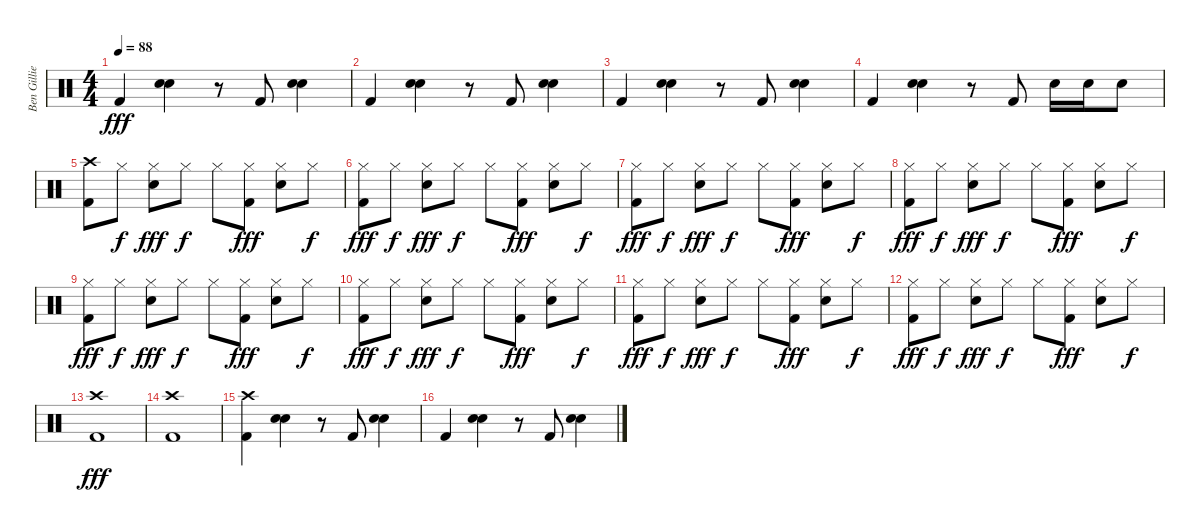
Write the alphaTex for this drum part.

\track ("Ben Gillies (Drums)" "Ben Gillie") {instrument percussion}
\staff {score}
\articulation defaults
\ts (4 4)
\tempo 88
\clef neutral
\ks c "Kick (hit) 2".4{dy fff}
("Electric Snare (hit)" "Electric Snare (hit)").4 r.8 "Kick (hit) 2".8 ("Electric Snare (hit)" "Electric Snare (hit)").4 |
"Kick (hit) 2".4 ("Electric Snare (hit)" "Electric Snare (hit)").4 r.8 "Kick (hit) 2".8 ("Electric Snare (hit)" "Electric Snare (hit)").4 |
"Kick (hit) 2".4 ("Electric Snare (hit)" "Electric Snare (hit)").4 r.8 "Kick (hit) 2".8 ("Electric Snare (hit)" "Electric Snare (hit)").4 |
"Kick (hit) 2".4 ("Electric Snare (hit)" "Electric Snare (hit)").4 r.8 "Kick (hit) 2".8 "Electric Snare (hit)".16 "Electric Snare (hit)".16 "Electric Snare (hit)".8 |
("Crash high (hit)" "Kick (hit) 2").8 "Hi-Hat (closed)".8{dy f} ("Hi-Hat (closed)" "Electric Snare (hit)").8{dy fff} "Hi-Hat (closed)".8{dy f} "Hi-Hat (closed)".8 ("Hi-Hat (closed)" "Kick (hit) 2").8{dy fff} ("Hi-Hat (closed)" "Electric Snare (hit)").8 "Hi-Hat (closed)".8{dy f} |
("Hi-Hat (closed)" "Kick (hit) 2").8{dy fff} "Hi-Hat (closed)".8{dy f} ("Hi-Hat (closed)" "Electric Snare (hit)").8{dy fff} "Hi-Hat (closed)".8{dy f} "Hi-Hat (closed)".8 ("Hi-Hat (closed)" "Kick (hit) 2").8{dy fff} ("Hi-Hat (closed)" "Electric Snare (hit)").8 "Hi-Hat (closed)".8{dy f} |
("Hi-Hat (closed)" "Kick (hit) 2").8{dy fff} "Hi-Hat (closed)".8{dy f} ("Hi-Hat (closed)" "Electric Snare (hit)").8{dy fff} "Hi-Hat (closed)".8{dy f} "Hi-Hat (closed)".8 ("Hi-Hat (closed)" "Kick (hit) 2").8{dy fff} ("Hi-Hat (closed)" "Electric Snare (hit)").8 "Hi-Hat (closed)".8{dy f} |
("Hi-Hat (closed)" "Kick (hit) 2").8{dy fff} "Hi-Hat (closed)".8{dy f} ("Hi-Hat (closed)" "Electric Snare (hit)").8{dy fff} "Hi-Hat (closed)".8{dy f} "Hi-Hat (closed)".8 ("Hi-Hat (closed)" "Kick (hit) 2").8{dy fff} ("Hi-Hat (closed)" "Electric Snare (hit)").8 "Hi-Hat (closed)".8{dy f} |
("Hi-Hat (closed)" "Kick (hit) 2").8{dy fff} "Hi-Hat (closed)".8{dy f} ("Hi-Hat (closed)" "Electric Snare (hit)").8{dy fff} "Hi-Hat (closed)".8{dy f} "Hi-Hat (closed)".8 ("Hi-Hat (closed)" "Kick (hit) 2").8{dy fff} ("Hi-Hat (closed)" "Electric Snare (hit)").8 "Hi-Hat (closed)".8{dy f} |
("Hi-Hat (closed)" "Kick (hit) 2").8{dy fff} "Hi-Hat (closed)".8{dy f} ("Hi-Hat (closed)" "Electric Snare (hit)").8{dy fff} "Hi-Hat (closed)".8{dy f} "Hi-Hat (closed)".8 ("Hi-Hat (closed)" "Kick (hit) 2").8{dy fff} ("Hi-Hat (closed)" "Electric Snare (hit)").8 "Hi-Hat (closed)".8{dy f} |
("Hi-Hat (closed)" "Kick (hit) 2").8{dy fff} "Hi-Hat (closed)".8{dy f} ("Hi-Hat (closed)" "Electric Snare (hit)").8{dy fff} "Hi-Hat (closed)".8{dy f} "Hi-Hat (closed)".8 ("Hi-Hat (closed)" "Kick (hit) 2").8{dy fff} ("Hi-Hat (closed)" "Electric Snare (hit)").8 "Hi-Hat (closed)".8{dy f} |
("Hi-Hat (closed)" "Kick (hit) 2").8{dy fff} "Hi-Hat (closed)".8{dy f} ("Hi-Hat (closed)" "Electric Snare (hit)").8{dy fff} "Hi-Hat (closed)".8{dy f} "Hi-Hat (closed)".8 ("Hi-Hat (closed)" "Kick (hit) 2").8{dy fff} ("Hi-Hat (closed)" "Electric Snare (hit)").8 "Hi-Hat (closed)".8{dy f} |
("Crash high (hit)" "Kick (hit) 2").1{dy fff} |
("Crash high (hit)" "Kick (hit) 2").1 |
("Crash high (hit)" "Kick (hit) 2").4 ("Electric Snare (hit)" "Electric Snare (hit)").4 r.8 "Kick (hit) 2".8 ("Electric Snare (hit)" "Electric Snare (hit)").4 |
"Kick (hit) 2".4 ("Electric Snare (hit)" "Electric Snare (hit)").4 r.8 "Kick (hit) 2".8 ("Electric Snare (hit)" "Electric Snare (hit)").4
